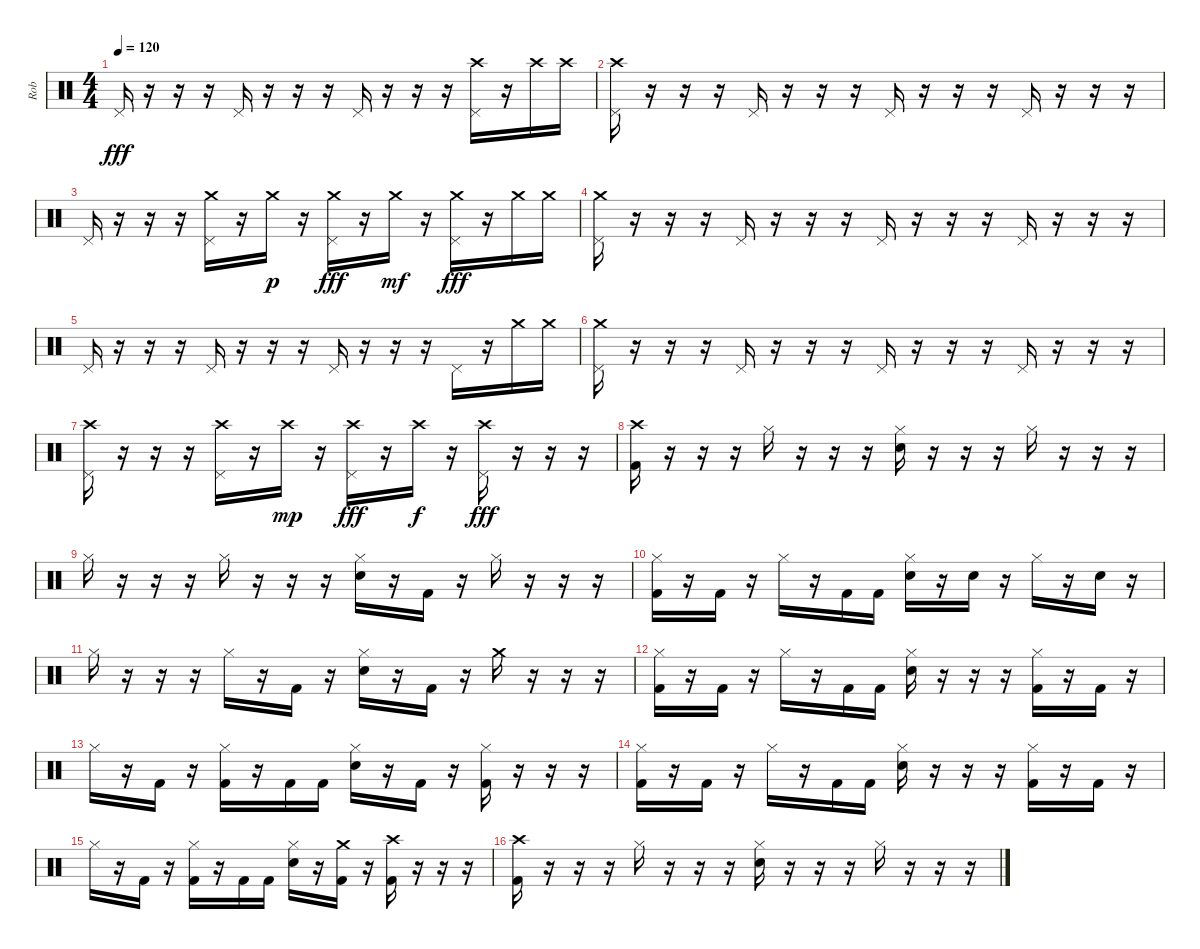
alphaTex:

\track ("Rob" "Rob") {instrument percussion}
\staff {score}
\articulation defaults
\ts (4 4)
\tempo 120
\clef neutral
\ks c "Pedal Hi-Hat (hit)".16{dy fff}
r.16 r.16 r.16 "Pedal Hi-Hat (hit)".16 r.16 r.16 r.16 "Pedal Hi-Hat (hit)".16 r.16 r.16 r.16 ("Crash high (hit)" "Pedal Hi-Hat (hit)").16 r.16 "Crash high (hit)".16 "Crash high (hit)".16 |
("Crash high (hit)" "Pedal Hi-Hat (hit)").16 r.16 r.16 r.16 "Pedal Hi-Hat (hit)".16 r.16 r.16 r.16 "Pedal Hi-Hat (hit)".16 r.16 r.16 r.16 "Pedal Hi-Hat (hit)".16 r.16 r.16 r.16 |
"Pedal Hi-Hat (hit)".16 r.16 r.16 r.16 ("Crash medium (hit)" "Pedal Hi-Hat (hit)").16 r.16 "Crash medium (hit)".16{dy p} r.16 ("Crash medium (hit)" "Pedal Hi-Hat (hit)").16{dy fff} r.16 "Crash medium (hit)".16{dy mf} r.16 ("Crash medium (hit)" "Pedal Hi-Hat (hit)").16{dy fff} r.16 "Crash medium (hit)".16 "Crash medium (hit)".16 |
("Crash medium (hit)" "Pedal Hi-Hat (hit)").16 r.16 r.16 r.16 "Pedal Hi-Hat (hit)".16 r.16 r.16 r.16 "Pedal Hi-Hat (hit)".16 r.16 r.16 r.16 "Pedal Hi-Hat (hit)".16 r.16 r.16 r.16 |
"Pedal Hi-Hat (hit)".16 r.16 r.16 r.16 "Pedal Hi-Hat (hit)".16 r.16 r.16 r.16 "Pedal Hi-Hat (hit)".16 r.16 r.16 r.16 "Pedal Hi-Hat (hit)".16 r.16 "Crash medium (hit)".16 "Crash medium (hit)".16 |
("Crash medium (hit)" "Pedal Hi-Hat (hit)").16 r.16 r.16 r.16 "Pedal Hi-Hat (hit)".16 r.16 r.16 r.16 "Pedal Hi-Hat (hit)".16 r.16 r.16 r.16 "Pedal Hi-Hat (hit)".16 r.16 r.16 r.16 |
("Crash high (hit)" "Pedal Hi-Hat (hit)").16 r.16 r.16 r.16 ("Crash high (hit)" "Pedal Hi-Hat (hit)").16 r.16 "Crash high (hit)".16{dy mp} r.16 ("Crash high (hit)" "Pedal Hi-Hat (hit)").16{dy fff} r.16 "Crash high (hit)".16{dy f} r.16 ("Crash high (hit)" "Pedal Hi-Hat (hit)").16{dy fff} r.16 r.16 r.16 |
("Crash high (hit)" "Kick (hit) 2").16 r.16 r.16 r.16 "Hi-Hat (closed)".16 r.16 r.16 r.16 ("Hi-Hat (closed)" "Electric Snare (hit)").16 r.16 r.16 r.16 "Hi-Hat (closed)".16 r.16 r.16 r.16 |
"Hi-Hat (closed)".16 r.16 r.16 r.16 "Hi-Hat (closed)".16 r.16 r.16 r.16 ("Hi-Hat (closed)" "Electric Snare (hit)").16 r.16 "Kick (hit) 2".16 r.16 "Hi-Hat (closed)".16 r.16 r.16 r.16 |
("Hi-Hat (closed)" "Kick (hit) 2").16 r.16 "Kick (hit) 2".16 r.16 "Hi-Hat (closed)".16 r.16 "Kick (hit) 2".16 "Kick (hit) 2".16 ("Hi-Hat (closed)" "Electric Snare (hit)").16 r.16 "Electric Snare (hit)".16 r.16 "Hi-Hat (closed)".16 r.16 "Electric Snare (hit)".16 r.16 |
"Hi-Hat (closed)".16 r.16 r.16 r.16 "Hi-Hat (closed)".16 r.16 "Kick (hit) 2".16 r.16 ("Hi-Hat (closed)" "Electric Snare (hit)").16 r.16 "Kick (hit) 2".16 r.16 "Crash medium (hit)".16 r.16 r.16 r.16 |
("Hi-Hat (closed)" "Kick (hit) 2").16 r.16 "Kick (hit) 2".16 r.16 "Hi-Hat (closed)".16 r.16 "Kick (hit) 2".16 "Kick (hit) 2".16 ("Hi-Hat (closed)" "Electric Snare (hit)").16 r.16 r.16 r.16 ("Hi-Hat (closed)" "Kick (hit) 2").16 r.16 "Kick (hit) 2".16 r.16 |
"Hi-Hat (closed)".16 r.16 "Kick (hit) 2".16 r.16 ("Hi-Hat (closed)" "Kick (hit) 2").16 r.16 "Kick (hit) 2".16 "Kick (hit) 2".16 ("Hi-Hat (closed)" "Electric Snare (hit)").16 r.16 "Kick (hit) 2".16 r.16 ("Hi-Hat (closed)" "Kick (hit) 2").16 r.16 r.16 r.16 |
("Hi-Hat (closed)" "Kick (hit) 2").16 r.16 "Kick (hit) 2".16 r.16 "Hi-Hat (closed)".16 r.16 "Kick (hit) 2".16 "Kick (hit) 2".16 ("Hi-Hat (closed)" "Electric Snare (hit)").16 r.16 r.16 r.16 ("Hi-Hat (closed)" "Kick (hit) 2").16 r.16 "Kick (hit) 2".16 r.16 |
"Hi-Hat (closed)".16 r.16 "Kick (hit) 2".16 r.16 ("Hi-Hat (closed)" "Kick (hit) 2").16 r.16 "Kick (hit) 2".16 "Kick (hit) 2".16 ("Hi-Hat (closed)" "Electric Snare (hit)").16 r.16 ("Crash medium (hit)" "Kick (hit) 2").16 r.16 ("Crash high (hit)" "Kick (hit) 2").16 r.16 r.16 r.16 |
("Crash high (hit)" "Kick (hit) 2").16 r.16 r.16 r.16 "Hi-Hat (closed)".16 r.16 r.16 r.16 ("Hi-Hat (closed)" "Electric Snare (hit)").16 r.16 r.16 r.16 "Hi-Hat (closed)".16 r.16 r.16 r.16
